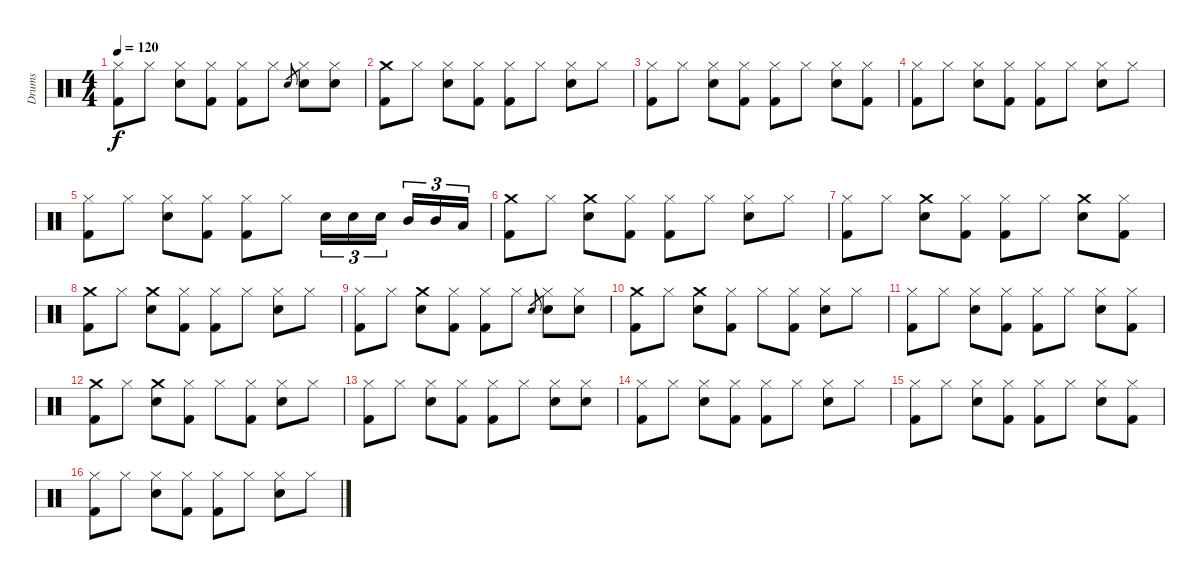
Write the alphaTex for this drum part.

\track ("Drums" "Drums") {instrument percussion}
\staff {score}
\articulation defaults
\ts (4 4)
\tempo 120
\clef neutral
\ks c
("Kick (hit) 2" "Hi-Hat (closed)").8{dy f} "Hi-Hat (closed)".8 ("Snare (hit) 2" "Hi-Hat (closed)").8 ("Kick (hit) 2" "Hi-Hat (closed)").8 ("Kick (hit) 2" "Hi-Hat (closed)").8 "Hi-Hat (closed)".8 "Snare (hit) 2".8{gr} ("Snare (hit) 2" "Hi-Hat (closed)").8 ("Snare (hit) 2" "Hi-Hat (closed)").8 |
("Kick (hit) 2" "Crash medium (hit)").8 "Hi-Hat (closed)".8 ("Snare (hit) 2" "Hi-Hat (closed)").8 ("Kick (hit) 2" "Hi-Hat (closed)").8 ("Kick (hit) 2" "Hi-Hat (closed)").8 "Hi-Hat (closed)".8 ("Snare (hit) 2" "Hi-Hat (closed)").8 "Hi-Hat (closed)".8 |
("Kick (hit) 2" "Hi-Hat (closed)").8 "Hi-Hat (closed)".8 ("Snare (hit) 2" "Hi-Hat (closed)").8 ("Kick (hit) 2" "Hi-Hat (closed)").8 ("Kick (hit) 2" "Hi-Hat (closed)").8 "Hi-Hat (closed)".8 ("Snare (hit) 2" "Hi-Hat (closed)").8 ("Kick (hit) 2" "Hi-Hat (closed)").8 |
("Kick (hit) 2" "Hi-Hat (closed)").8 "Hi-Hat (closed)".8 ("Snare (hit) 2" "Hi-Hat (closed)").8 ("Kick (hit) 2" "Hi-Hat (closed)").8 ("Kick (hit) 2" "Hi-Hat (closed)").8 "Hi-Hat (closed)".8 ("Snare (hit) 2" "Hi-Hat (closed)").8 "Hi-Hat (closed)".8 |
("Kick (hit) 2" "Hi-Hat (closed)").8 "Hi-Hat (closed)".8 ("Snare (hit) 2" "Hi-Hat (closed)").8 ("Kick (hit) 2" "Hi-Hat (closed)").8 ("Kick (hit) 2" "Hi-Hat (closed)").8 "Hi-Hat (closed)".8 "Snare (hit) 2".16{tu (3 2)} "Snare (hit) 2".16{tu (3 2)} "Snare (hit) 2".16{tu (3 2)} "Mid Tom (hit)".16{tu (3 2)} "Mid Tom (hit)".16{tu (3 2)} "Low Tom (hit)".16{tu (3 2)} |
("Kick (hit) 2" "Crash medium (hit)").8 "Hi-Hat (closed)".8 ("Snare (hit) 2" "Crash medium (hit)").8 ("Kick (hit) 2" "Hi-Hat (closed)").8 ("Kick (hit) 2" "Hi-Hat (closed)").8 "Hi-Hat (closed)".8 ("Snare (hit) 2" "Hi-Hat (closed)").8 "Hi-Hat (closed)".8 |
("Kick (hit) 2" "Hi-Hat (closed)").8 "Hi-Hat (closed)".8 ("Snare (hit) 2" "Crash medium (hit)").8 ("Kick (hit) 2" "Hi-Hat (closed)").8 ("Kick (hit) 2" "Hi-Hat (closed)").8 "Hi-Hat (closed)".8 ("Snare (hit) 2" "Crash medium (hit)").8 ("Kick (hit) 2" "Hi-Hat (closed)").8 |
("Kick (hit) 2" "Crash medium (hit)").8 "Hi-Hat (closed)".8 ("Snare (hit) 2" "Crash medium (hit)").8 ("Kick (hit) 2" "Hi-Hat (closed)").8 ("Kick (hit) 2" "Hi-Hat (closed)").8 "Hi-Hat (closed)".8 ("Snare (hit) 2" "Hi-Hat (closed)").8 "Hi-Hat (closed)".8 |
("Kick (hit) 2" "Hi-Hat (closed)").8 "Hi-Hat (closed)".8 ("Snare (hit) 2" "Crash medium (hit)").8 ("Kick (hit) 2" "Hi-Hat (closed)").8 ("Kick (hit) 2" "Hi-Hat (closed)").8 "Hi-Hat (closed)".8 "Snare (hit) 2".8{gr} ("Snare (hit) 2" "Hi-Hat (closed)").8 ("Snare (hit) 2" "Hi-Hat (closed)").8 |
("Kick (hit) 2" "Crash medium (hit)").8 "Hi-Hat (closed)".8 ("Snare (hit) 2" "Crash medium (hit)").8 ("Kick (hit) 2" "Hi-Hat (closed)").8 "Hi-Hat (closed)".8 ("Kick (hit) 2" "Hi-Hat (closed)").8 ("Snare (hit) 2" "Hi-Hat (closed)").8 "Hi-Hat (closed)".8 |
("Kick (hit) 2" "Hi-Hat (closed)").8 "Hi-Hat (closed)".8 ("Snare (hit) 2" "Hi-Hat (closed)").8 ("Kick (hit) 2" "Hi-Hat (closed)").8 ("Kick (hit) 2" "Hi-Hat (closed)").8 "Hi-Hat (closed)".8 ("Snare (hit) 2" "Hi-Hat (closed)").8 ("Kick (hit) 2" "Hi-Hat (closed)").8 |
("Kick (hit) 2" "Crash medium (hit)").8 "Hi-Hat (closed)".8 ("Snare (hit) 2" "Crash medium (hit)").8 ("Kick (hit) 2" "Hi-Hat (closed)").8 "Hi-Hat (closed)".8 ("Kick (hit) 2" "Hi-Hat (closed)").8 ("Snare (hit) 2" "Hi-Hat (closed)").8 "Hi-Hat (closed)".8 |
("Kick (hit) 2" "Hi-Hat (closed)").8 "Hi-Hat (closed)".8 ("Snare (hit) 2" "Hi-Hat (closed)").8 ("Kick (hit) 2" "Hi-Hat (closed)").8 ("Kick (hit) 2" "Hi-Hat (closed)").8 "Hi-Hat (closed)".8 ("Snare (hit) 2" "Hi-Hat (closed)").8 ("Snare (hit) 2" "Hi-Hat (closed)").8 |
("Kick (hit) 2" "Hi-Hat (closed)").8 "Hi-Hat (closed)".8 ("Snare (hit) 2" "Hi-Hat (closed)").8 ("Kick (hit) 2" "Hi-Hat (closed)").8 ("Kick (hit) 2" "Hi-Hat (closed)").8 "Hi-Hat (closed)".8 ("Snare (hit) 2" "Hi-Hat (closed)").8 "Hi-Hat (closed)".8 |
("Kick (hit) 2" "Hi-Hat (closed)").8 "Hi-Hat (closed)".8 ("Snare (hit) 2" "Hi-Hat (closed)").8 ("Kick (hit) 2" "Hi-Hat (closed)").8 ("Kick (hit) 2" "Hi-Hat (closed)").8 "Hi-Hat (closed)".8 ("Snare (hit) 2" "Hi-Hat (closed)").8 ("Kick (hit) 2" "Hi-Hat (closed)").8 |
("Kick (hit) 2" "Hi-Hat (closed)").8 "Hi-Hat (closed)".8 ("Snare (hit) 2" "Hi-Hat (closed)").8 ("Kick (hit) 2" "Hi-Hat (closed)").8 ("Kick (hit) 2" "Hi-Hat (closed)").8 "Hi-Hat (closed)".8 ("Snare (hit) 2" "Hi-Hat (closed)").8 "Hi-Hat (closed)".8
